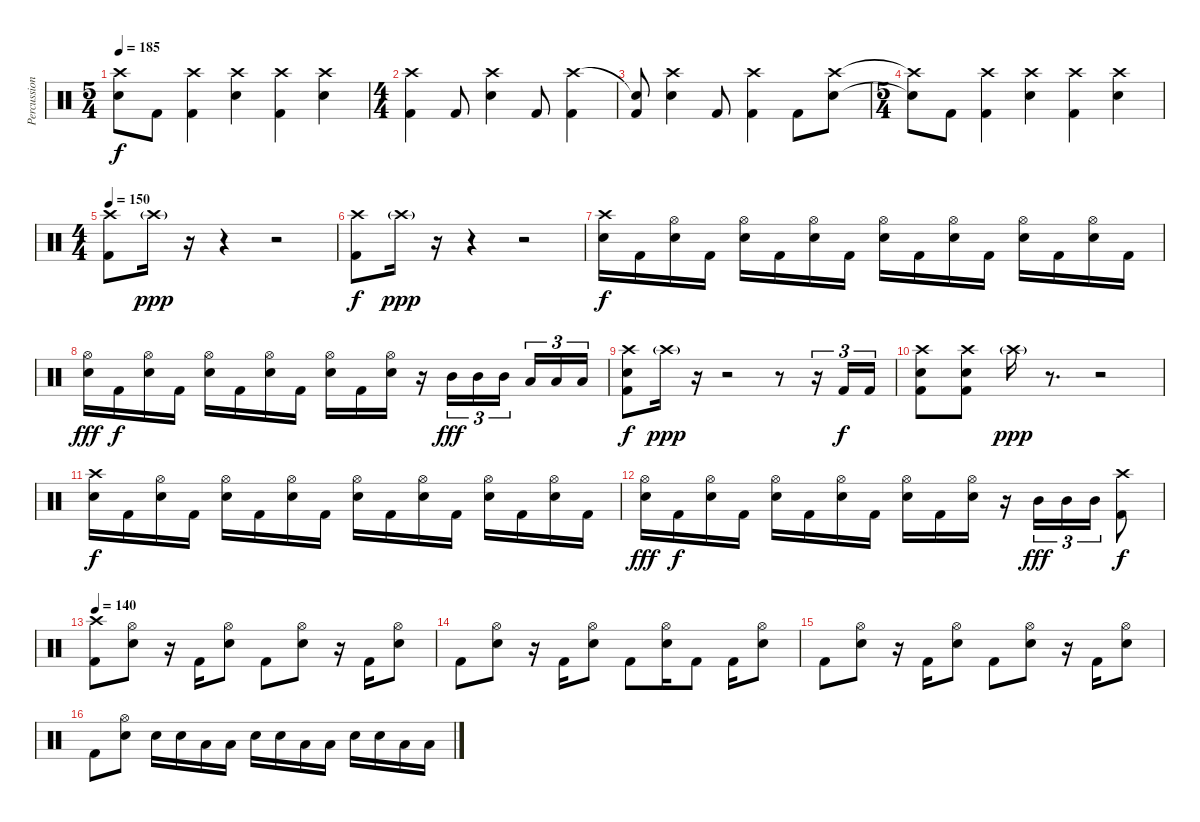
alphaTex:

\track ("Percussion" "Percussion") {instrument percussion}
\staff {score}
\articulation defaults
\ts (5 4)
\tempo 185
\clef neutral
\ks c
("Crash high (hit)"{t} "Snare (hit)"{t}).8{dy f} "Kick (hit) 2".8 ("Crash high (hit)" "Kick (hit) 2").4 ("Crash high (hit)" "Snare (hit) 2").4 ("Crash high (hit)" "Kick (hit) 2").4 ("Crash high (hit)" "Snare (hit) 2").4 |
\ts (4 4)
("Crash high (hit)" "Kick (hit) 2").4 "Kick (hit) 2".8 ("Crash high (hit)" "Snare (hit) 2").4 "Kick (hit) 2".8 ("Crash high (hit)" "Kick (hit) 2").4 |
("Snare (hit)"{t} "Kick (hit) 2").8 ("Crash high (hit)" "Snare (hit) 2").4 "Kick (hit) 2".8 ("Crash high (hit)" "Kick (hit) 2").4 "Kick (hit) 2".8 ("Crash high (hit)" "Snare (hit) 2").8 |
\ts (5 4)
("Crash high (hit)"{t} "Snare (hit)"{t}).8 "Kick (hit) 2".8 ("Crash high (hit)" "Kick (hit) 2").4 ("Crash high (hit)" "Snare (hit) 2").4 ("Crash high (hit)" "Kick (hit) 2").4 ("Crash high (hit)" "Snare (hit) 2").4 |
\ts (4 4)
\tempo 150
("Crash high (hit)" "Kick (hit) 2").8 "Crash high (hit)"{g}.16{dy ppp} r.16 r.4 r.2 |
("Crash high (hit)" "Kick (hit) 2").8{dy f} "Crash high (hit)"{g}.16{dy ppp} r.16 r.4 r.2 |
("Crash high (hit)" "Snare (hit) 2").16{dy f} "Kick (hit) 2".16 ("Hi-Hat (open)" "Snare (hit) 2").16 "Kick (hit) 2".16 ("Hi-Hat (open)" "Snare (hit) 2").16 "Kick (hit) 2".16 ("Hi-Hat (open)" "Snare (hit) 2").16 "Kick (hit) 2".16 ("Hi-Hat (open)" "Snare (hit) 2").16 "Kick (hit) 2".16 ("Hi-Hat (open)" "Snare (hit) 2").16 "Kick (hit) 2".16 ("Hi-Hat (open)" "Snare (hit) 2").16 "Kick (hit) 2".16 ("Hi-Hat (open)" "Snare (hit) 2").16 "Kick (hit) 2".16 |
("Hi-Hat (open)" "Snare (hit) 2").16{dy fff} "Kick (hit) 2".16{dy f} ("Hi-Hat (open)" "Snare (hit) 2").16 "Kick (hit) 2".16 ("Hi-Hat (open)" "Snare (hit) 2").16 "Kick (hit) 2".16 ("Hi-Hat (open)" "Snare (hit) 2").16 "Kick (hit) 2".16 ("Hi-Hat (open)" "Snare (hit) 2").16 "Kick (hit) 2".16 ("Hi-Hat (open)" "Snare (hit) 2").16 r.16 "Mid Tom (hit)".16{tu (3 2) dy fff} "Mid Tom (hit)".16{tu (3 2)} "Mid Tom (hit)".16{tu (3 2) beam splitsecondary} "Low Tom (hit)".16{tu (3 2)} "Low Tom (hit)".16{tu (3 2)} "Low Tom (hit)".16{tu (3 2)} |
("Crash high (hit)" "Snare (hit) 2" "Kick (hit) 2").8{dy f} "Crash high (hit)"{g}.16{dy ppp} r.16 r.2 r.8 r.16{tu (3 2)} "Kick (hit) 2".16{tu (3 2) dy f} "Kick (hit) 2".16{tu (3 2)} |
("Crash high (hit)" "Snare (hit) 2" "Kick (hit) 2").8 ("Crash high (hit)" "Snare (hit) 2" "Kick (hit) 2").8 "Crash high (hit)"{g}.16{dy ppp} r.8{d} r.2 |
("Crash high (hit)" "Snare (hit) 2").16{dy f} "Kick (hit) 2".16 ("Hi-Hat (open)" "Snare (hit) 2").16 "Kick (hit) 2".16 ("Hi-Hat (open)" "Snare (hit) 2").16 "Kick (hit) 2".16 ("Hi-Hat (open)" "Snare (hit) 2").16 "Kick (hit) 2".16 ("Hi-Hat (open)" "Snare (hit) 2").16 "Kick (hit) 2".16 ("Hi-Hat (open)" "Snare (hit) 2").16 "Kick (hit) 2".16 ("Hi-Hat (open)" "Snare (hit) 2").16 "Kick (hit) 2".16 ("Hi-Hat (open)" "Snare (hit) 2").16 "Kick (hit) 2".16 |
("Hi-Hat (open)" "Snare (hit) 2").16{dy fff} "Kick (hit) 2".16{dy f} ("Hi-Hat (open)" "Snare (hit) 2").16 "Kick (hit) 2".16 ("Hi-Hat (open)" "Snare (hit) 2").16 "Kick (hit) 2".16 ("Hi-Hat (open)" "Snare (hit) 2").16 "Kick (hit) 2".16 ("Hi-Hat (open)" "Snare (hit) 2").16 "Kick (hit) 2".16 ("Hi-Hat (open)" "Snare (hit) 2").16 r.16 "Mid Tom (hit)".16{tu (3 2) dy fff} "Mid Tom (hit)".16{tu (3 2)} "Mid Tom (hit)".16{tu (3 2)} ("Crash high (hit)" "Kick (hit) 2").8{dy f} |
\tempo 140
("Crash high (hit)" "Kick (hit) 2").8 ("Hi-Hat (open)" "Snare (hit) 2").8 r.16 "Kick (hit) 2".16 ("Hi-Hat (open)" "Snare (hit) 2").8 "Kick (hit) 2".8 ("Hi-Hat (open)" "Snare (hit) 2").8 r.16 "Kick (hit) 2".16 ("Hi-Hat (open)" "Snare (hit) 2").8 |
"Kick (hit) 2".8 ("Hi-Hat (open)" "Snare (hit) 2").8 r.16 "Kick (hit) 2".16 ("Hi-Hat (open)" "Snare (hit) 2").8 "Kick (hit) 2".8 ("Hi-Hat (open)" "Snare (hit) 2").16 "Kick (hit) 2".8 "Kick (hit) 2".16 ("Hi-Hat (open)" "Snare (hit) 2").8 |
"Kick (hit) 2".8 ("Hi-Hat (open)" "Snare (hit) 2").8 r.16 "Kick (hit) 2".16 ("Hi-Hat (open)" "Snare (hit) 2").8 "Kick (hit) 2".8 ("Hi-Hat (open)" "Snare (hit) 2").8 r.16 "Kick (hit) 2".16 ("Hi-Hat (open)" "Snare (hit) 2").8 |
"Kick (hit) 2".8 ("Hi-Hat (open)" "Snare (hit) 2").8 "Snare (hit) 2".16 "Snare (hit) 2".16 "Low Tom (hit)".16 "Low Tom (hit)".16 "Snare (hit) 2".16 "Snare (hit) 2".16 "Low Tom (hit)".16 "Low Tom (hit)".16 "Snare (hit) 2".16 "Snare (hit) 2".16 "Low Tom (hit)".16 "Low Tom (hit)".16
